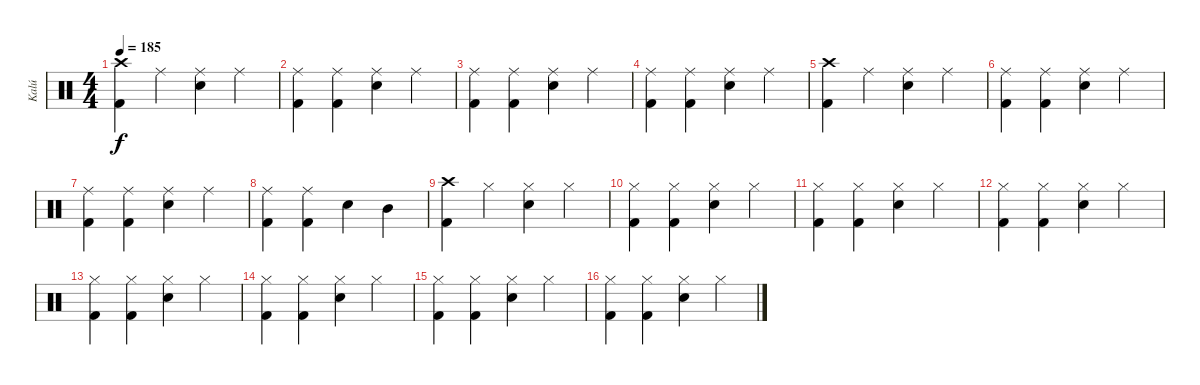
\track ("Kalú" "Kalú") {instrument percussion}
\staff {score}
\articulation defaults
\ts (4 4)
\tempo 185
\clef neutral
\ks c
("Crash high (hit)" "Kick (hit) 2").4{dy f} "Ride (middle)".4 ("Ride (middle)" "Snare (hit) 2").4 "Ride (middle)".4 |
("Ride (middle)" "Kick (hit) 2").4 ("Ride (middle)" "Kick (hit) 2").4 ("Ride (middle)" "Snare (hit) 2").4 "Ride (middle)".4 |
("Ride (middle)" "Kick (hit) 2").4 ("Ride (middle)" "Kick (hit) 2").4 ("Ride (middle)" "Snare (hit) 2").4 "Ride (middle)".4 |
("Ride (middle)" "Kick (hit) 2").4 ("Ride (middle)" "Kick (hit) 2").4 ("Ride (middle)" "Snare (hit) 2").4 "Ride (middle)".4 |
("Crash high (hit)" "Kick (hit) 2").4 "Ride (middle)".4 ("Ride (middle)" "Snare (hit) 2").4 "Ride (middle)".4 |
("Ride (middle)" "Kick (hit) 2").4 ("Ride (middle)" "Kick (hit) 2").4 ("Ride (middle)" "Snare (hit) 2").4 "Ride (middle)".4 |
("Ride (middle)" "Kick (hit) 2").4 ("Ride (middle)" "Kick (hit) 2").4 ("Ride (middle)" "Snare (hit) 2").4 "Ride (middle)".4 |
("Ride (middle)" "Kick (hit) 2").4 ("Ride (middle)" "Kick (hit) 2").4 "Snare (hit) 2".4 "Mid Tom (hit)".4 |
("Crash high (hit)" "Kick (hit) 2").4 "Hi-Hat (closed)".4 ("Hi-Hat (closed)" "Snare (hit) 2").4 "Hi-Hat (closed)".4 |
("Hi-Hat (closed)" "Kick (hit) 2").4 ("Hi-Hat (closed)" "Kick (hit) 2").4 ("Hi-Hat (closed)" "Snare (hit) 2").4 "Hi-Hat (closed)".4 |
("Hi-Hat (closed)" "Kick (hit) 2").4 ("Hi-Hat (closed)" "Kick (hit) 2").4 ("Hi-Hat (closed)" "Snare (hit) 2").4 "Hi-Hat (closed)".4 |
("Hi-Hat (closed)" "Kick (hit) 2").4 ("Hi-Hat (closed)" "Kick (hit) 2").4 ("Hi-Hat (closed)" "Snare (hit) 2").4 "Hi-Hat (closed)".4 |
("Hi-Hat (closed)" "Kick (hit) 2").4 ("Hi-Hat (closed)" "Kick (hit) 2").4 ("Hi-Hat (closed)" "Snare (hit) 2").4 "Hi-Hat (closed)".4 |
("Hi-Hat (closed)" "Kick (hit) 2").4 ("Hi-Hat (closed)" "Kick (hit) 2").4 ("Hi-Hat (closed)" "Snare (hit) 2").4 "Hi-Hat (closed)".4 |
("Hi-Hat (closed)" "Kick (hit) 2").4 ("Hi-Hat (closed)" "Kick (hit) 2").4 ("Hi-Hat (closed)" "Snare (hit) 2").4 "Hi-Hat (closed)".4 |
("Hi-Hat (closed)" "Kick (hit) 2").4 ("Hi-Hat (closed)" "Kick (hit) 2").4 ("Hi-Hat (closed)" "Snare (hit) 2").4 "Hi-Hat (closed)".4
